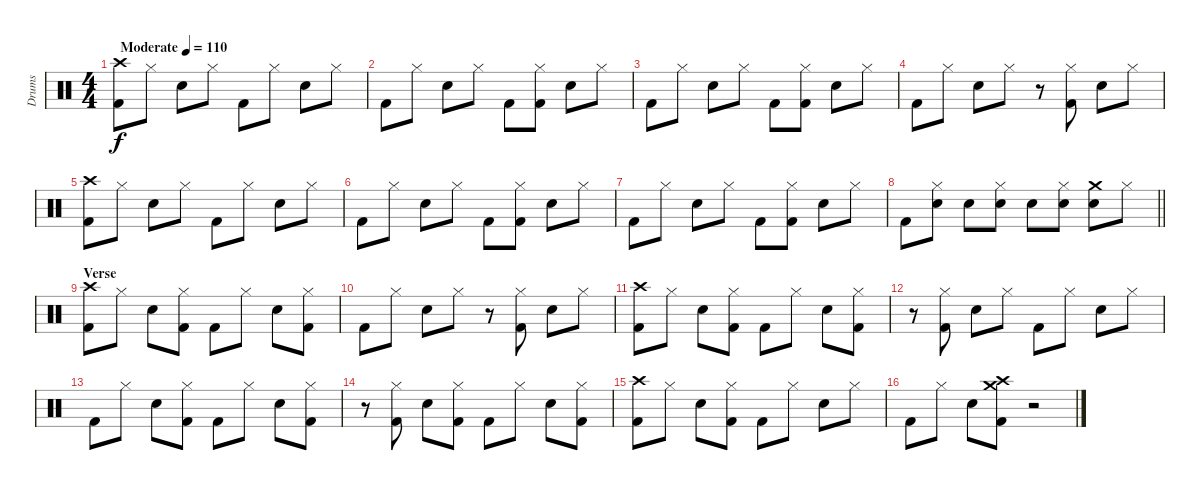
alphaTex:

\track ("Drums" "Drums") {instrument percussion}
\staff {score}
\articulation defaults
\ts (4 4)
\tempo (110 "Moderate")
\clef neutral
\ks c
("Kick (hit) 2" "Crash high (hit)").8{dy f} "Hi-Hat (closed)".8 "Snare (hit) 2".8 "Hi-Hat (closed)".8 "Kick (hit) 2".8 "Hi-Hat (closed)".8 "Snare (hit) 2".8 "Hi-Hat (closed)".8 |
"Kick (hit) 2".8 "Hi-Hat (closed)".8 "Snare (hit) 2".8 "Hi-Hat (closed)".8 "Kick (hit) 2".8 ("Kick (hit) 2" "Hi-Hat (closed)").8 "Snare (hit) 2".8 "Hi-Hat (closed)".8 |
"Kick (hit) 2".8 "Hi-Hat (closed)".8 "Snare (hit) 2".8 "Hi-Hat (closed)".8 "Kick (hit) 2".8 ("Kick (hit) 2" "Hi-Hat (closed)").8 "Snare (hit) 2".8 "Hi-Hat (closed)".8 |
"Kick (hit) 2".8 "Hi-Hat (closed)".8 "Snare (hit) 2".8 "Hi-Hat (closed)".8 r.8 ("Kick (hit) 2" "Hi-Hat (closed)").8 "Snare (hit) 2".8 "Hi-Hat (closed)".8 |
("Kick (hit) 2" "Crash high (hit)").8 "Hi-Hat (closed)".8 "Snare (hit) 2".8 "Hi-Hat (closed)".8 "Kick (hit) 2".8 "Hi-Hat (closed)".8 "Snare (hit) 2".8 "Hi-Hat (closed)".8 |
"Kick (hit) 2".8 "Hi-Hat (closed)".8 "Snare (hit) 2".8 "Hi-Hat (closed)".8 "Kick (hit) 2".8 ("Kick (hit) 2" "Hi-Hat (closed)").8 "Snare (hit) 2".8 "Hi-Hat (closed)".8 |
"Kick (hit) 2".8 "Hi-Hat (closed)".8 "Snare (hit) 2".8 "Hi-Hat (closed)".8 "Kick (hit) 2".8 ("Kick (hit) 2" "Hi-Hat (closed)").8 "Snare (hit) 2".8 "Hi-Hat (closed)".8 |
\barLineRight lightlight "Kick (hit) 2".8
("Snare (hit) 2" "Hi-Hat (closed)").8 "Snare (hit) 2".8 ("Snare (hit) 2" "Hi-Hat (closed)").8 "Snare (hit) 2".8 ("Snare (hit) 2" "Hi-Hat (closed)").8 ("Snare (hit) 2" "Crash medium (hit)").8 "Hi-Hat (closed)".8 |
\section ("" "Verse")
("Kick (hit) 2" "Crash high (hit)").8 "Hi-Hat (closed)".8 "Snare (hit) 2".8 ("Kick (hit) 2" "Hi-Hat (closed)").8 "Kick (hit) 2".8 "Hi-Hat (closed)".8 "Snare (hit) 2".8 ("Kick (hit) 2" "Hi-Hat (closed)").8 |
"Kick (hit) 2".8 "Hi-Hat (closed)".8 "Snare (hit) 2".8 "Hi-Hat (closed)".8 r.8 ("Kick (hit) 2" "Hi-Hat (closed)").8 "Snare (hit) 2".8 "Hi-Hat (closed)".8 |
("Kick (hit) 2" "Crash high (hit)").8 "Hi-Hat (closed)".8 "Snare (hit) 2".8 ("Kick (hit) 2" "Hi-Hat (closed)").8 "Kick (hit) 2".8 "Hi-Hat (closed)".8 "Snare (hit) 2".8 ("Kick (hit) 2" "Hi-Hat (closed)").8 |
r.8 ("Kick (hit) 2" "Hi-Hat (closed)").8 "Snare (hit) 2".8 "Hi-Hat (closed)".8 "Kick (hit) 2".8 "Hi-Hat (closed)".8 "Snare (hit) 2".8 "Hi-Hat (closed)".8 |
"Kick (hit) 2".8 "Hi-Hat (closed)".8 "Snare (hit) 2".8 ("Kick (hit) 2" "Hi-Hat (closed)").8 "Kick (hit) 2".8 "Hi-Hat (closed)".8 "Snare (hit) 2".8 ("Kick (hit) 2" "Hi-Hat (closed)").8 |
r.8 ("Kick (hit) 2" "Hi-Hat (closed)").8 "Snare (hit) 2".8 ("Kick (hit) 2" "Hi-Hat (closed)").8 "Kick (hit) 2".8 "Hi-Hat (closed)".8 "Snare (hit) 2".8 ("Kick (hit) 2" "Hi-Hat (closed)").8 |
("Kick (hit) 2" "Crash high (hit)").8 "Hi-Hat (closed)".8 "Snare (hit) 2".8 ("Kick (hit) 2" "Hi-Hat (closed)").8 "Kick (hit) 2".8 "Hi-Hat (closed)".8 "Snare (hit) 2".8 "Hi-Hat (closed)".8 |
"Kick (hit) 2".8 "Hi-Hat (closed)".8 "Snare (hit) 2".8 ("Kick (hit) 2" "Crash high (hit)" "Crash medium (hit)").8 r.2
